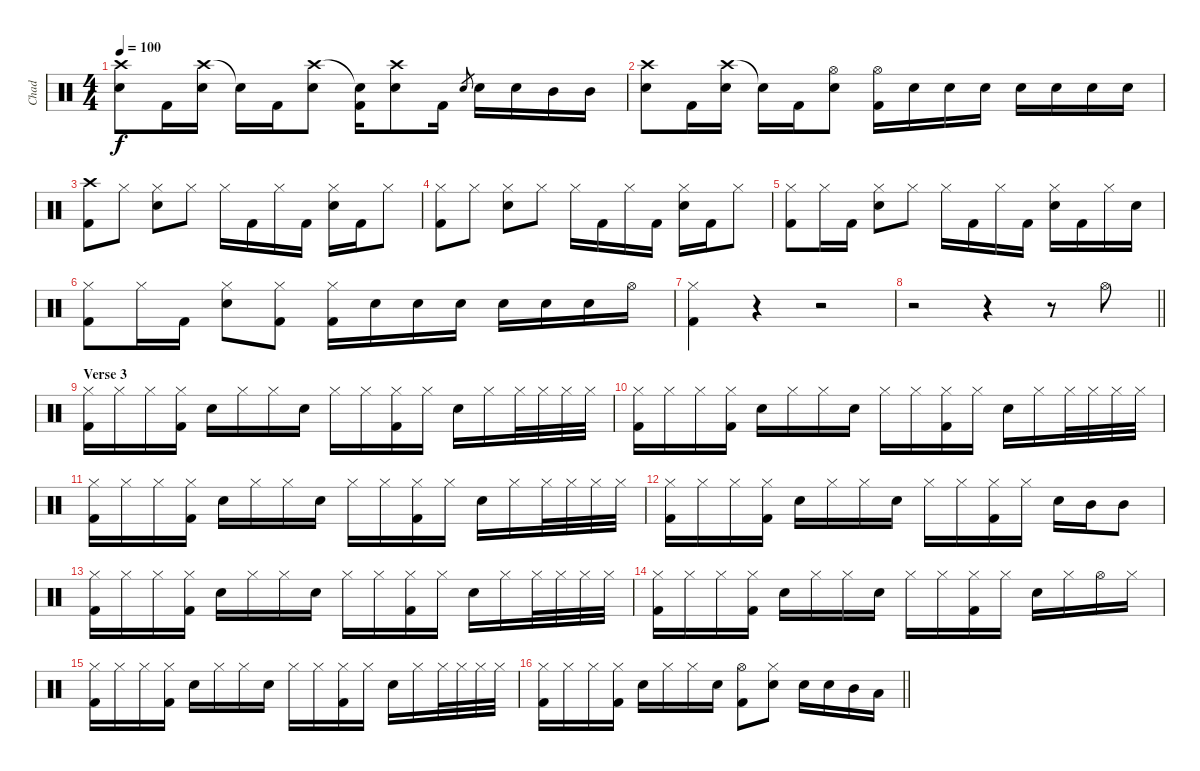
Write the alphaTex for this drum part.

\track ("Chad" "Chad") {instrument percussion}
\staff {score}
\articulation defaults
\ts (4 4)
\tempo 100
\clef neutral
\ks c
("Crash high (hit)" "Electric Snare (hit)").8{dy f} "Kick (hit) 2".16 ("Crash high (hit)" "Electric Snare (hit)").16 "Snare (hit)"{t}.16 "Kick (hit) 2".16 ("Crash high (hit)" "Electric Snare (hit)").8 ("Snare (hit)"{t} "Kick (hit) 2").16 ("Crash high (hit)" "Electric Snare (hit)").8 "Kick (hit) 2".16 "Electric Snare (hit)".8{gr} "Electric Snare (hit)".16 "Electric Snare (hit)".16 "Mid Tom (hit)".16 "Mid Tom (hit)".16 |
("Crash high (hit)" "Electric Snare (hit)").8 "Kick (hit) 2".16 ("Crash high (hit)" "Electric Snare (hit)").16 "Snare (hit)"{t}.16 "Kick (hit) 2".16 ("Hi-Hat (open)" "Electric Snare (hit)").8 ("Hi-Hat (open)" "Kick (hit) 2").16 "Electric Snare (hit)".16 "Electric Snare (hit)".16 "Electric Snare (hit)".16 "Electric Snare (hit)".16 "Electric Snare (hit)".16 "Electric Snare (hit)".16 "Electric Snare (hit)".16 |
("Crash high (hit)" "Kick (hit) 2").8 "Hi-Hat (closed)".8 ("Hi-Hat (closed)" "Electric Snare (hit)").8 "Hi-Hat (closed)".8 "Hi-Hat (closed)".16 "Kick (hit) 2".16 "Hi-Hat (closed)".16 "Kick (hit) 2".16 ("Hi-Hat (closed)" "Electric Snare (hit)").16 "Kick (hit) 2".16 "Hi-Hat (closed)".8 |
("Hi-Hat (closed)" "Kick (hit) 2").8 "Hi-Hat (closed)".8 ("Hi-Hat (closed)" "Electric Snare (hit)").8 "Hi-Hat (closed)".8 "Hi-Hat (closed)".16 "Kick (hit) 2".16 "Hi-Hat (closed)".16 "Kick (hit) 2".16 ("Hi-Hat (closed)" "Electric Snare (hit)").16 "Kick (hit) 2".16 "Hi-Hat (closed)".8 |
("Hi-Hat (closed)" "Kick (hit) 2").8 "Hi-Hat (closed)".16 "Kick (hit) 2".16 ("Hi-Hat (closed)" "Electric Snare (hit)").8 "Hi-Hat (closed)".8 "Hi-Hat (closed)".16 "Kick (hit) 2".16 "Hi-Hat (closed)".16 "Kick (hit) 2".16 ("Hi-Hat (closed)" "Electric Snare (hit)").16 "Kick (hit) 2".16 "Hi-Hat (closed)".16 "Electric Snare (hit)".16 |
("Hi-Hat (closed)" "Kick (hit) 2").8 "Hi-Hat (closed)".16 "Kick (hit) 2".16 ("Hi-Hat (closed)" "Electric Snare (hit)").8 ("Hi-Hat (closed)" "Kick (hit) 2").8 ("Hi-Hat (closed)" "Kick (hit) 2").16 "Electric Snare (hit)".16 "Electric Snare (hit)".16 "Electric Snare (hit)".16 "Electric Snare (hit)".16 "Electric Snare (hit)".16 "Electric Snare (hit)".16 "Hi-Hat (open)".16 |
("Hi-Hat (closed)" "Kick (hit) 2").4 r.4 r.2 |
\barLineRight lightlight
r.2 r.4 r.8 "Hi-Hat (open)".8 |
\section ("" "Verse 3")
("Hi-Hat (closed)" "Kick (hit) 2").16 "Hi-Hat (closed)".16 "Hi-Hat (closed)".16 ("Hi-Hat (closed)" "Kick (hit) 2").16 "Electric Snare (hit)".16 "Hi-Hat (closed)".16 "Hi-Hat (closed)".16 "Electric Snare (hit)".16 "Hi-Hat (closed)".16 "Hi-Hat (closed)".16 ("Hi-Hat (closed)" "Kick (hit) 2").16 "Hi-Hat (closed)".16 "Electric Snare (hit)".16 "Hi-Hat (closed)".16 "Hi-Hat (closed)".32 "Hi-Hat (closed)".32 "Hi-Hat (closed)".32 "Hi-Hat (closed)".32 |
("Hi-Hat (closed)" "Kick (hit) 2").16 "Hi-Hat (closed)".16 "Hi-Hat (closed)".16 ("Hi-Hat (closed)" "Kick (hit) 2").16 "Electric Snare (hit)".16 "Hi-Hat (closed)".16 "Hi-Hat (closed)".16 "Electric Snare (hit)".16 "Hi-Hat (closed)".16 "Hi-Hat (closed)".16 ("Hi-Hat (closed)" "Kick (hit) 2").16 "Hi-Hat (closed)".16 "Electric Snare (hit)".16 "Hi-Hat (closed)".16 "Hi-Hat (closed)".32 "Hi-Hat (closed)".32 "Hi-Hat (closed)".32 "Hi-Hat (closed)".32 |
("Hi-Hat (closed)" "Kick (hit) 2").16 "Hi-Hat (closed)".16 "Hi-Hat (closed)".16 ("Hi-Hat (closed)" "Kick (hit) 2").16 "Electric Snare (hit)".16 "Hi-Hat (closed)".16 "Hi-Hat (closed)".16 "Electric Snare (hit)".16 "Hi-Hat (closed)".16 "Hi-Hat (closed)".16 ("Hi-Hat (closed)" "Kick (hit) 2").16 "Hi-Hat (closed)".16 "Electric Snare (hit)".16 "Hi-Hat (closed)".16 "Hi-Hat (closed)".32 "Hi-Hat (closed)".32 "Hi-Hat (closed)".32 "Hi-Hat (closed)".32 |
("Hi-Hat (closed)" "Kick (hit) 2").16 "Hi-Hat (closed)".16 "Hi-Hat (closed)".16 ("Hi-Hat (closed)" "Kick (hit) 2").16 "Electric Snare (hit)".16 "Hi-Hat (closed)".16 "Hi-Hat (closed)".16 "Electric Snare (hit)".16 "Hi-Hat (closed)".16 "Hi-Hat (closed)".16 ("Hi-Hat (closed)" "Kick (hit) 2").16 "Hi-Hat (closed)".16 "Electric Snare (hit)".16 "Mid Tom (hit)".16 "Mid Tom (hit)".8 |
("Hi-Hat (closed)" "Kick (hit) 2").16 "Hi-Hat (closed)".16 "Hi-Hat (closed)".16 ("Hi-Hat (closed)" "Kick (hit) 2").16 "Electric Snare (hit)".16 "Hi-Hat (closed)".16 "Hi-Hat (closed)".16 "Electric Snare (hit)".16 "Hi-Hat (closed)".16 "Hi-Hat (closed)".16 ("Hi-Hat (closed)" "Kick (hit) 2").16 "Hi-Hat (closed)".16 "Electric Snare (hit)".16 "Hi-Hat (closed)".16 "Hi-Hat (closed)".32 "Hi-Hat (closed)".32 "Hi-Hat (closed)".32 "Hi-Hat (closed)".32 |
("Hi-Hat (closed)" "Kick (hit) 2").16 "Hi-Hat (closed)".16 "Hi-Hat (closed)".16 ("Hi-Hat (closed)" "Kick (hit) 2").16 "Electric Snare (hit)".16 "Hi-Hat (closed)".16 "Hi-Hat (closed)".16 "Electric Snare (hit)".16 "Hi-Hat (closed)".16 "Hi-Hat (closed)".16 ("Hi-Hat (closed)" "Kick (hit) 2").16 "Hi-Hat (closed)".16 "Electric Snare (hit)".16 "Hi-Hat (closed)".16 "Hi-Hat (open)".16 "Hi-Hat (closed)".16 |
("Hi-Hat (closed)" "Kick (hit) 2").16 "Hi-Hat (closed)".16 "Hi-Hat (closed)".16 ("Hi-Hat (closed)" "Kick (hit) 2").16 "Electric Snare (hit)".16 "Hi-Hat (closed)".16 "Hi-Hat (closed)".16 "Electric Snare (hit)".16 "Hi-Hat (closed)".16 "Hi-Hat (closed)".16 ("Hi-Hat (closed)" "Kick (hit) 2").16 "Hi-Hat (closed)".16 "Electric Snare (hit)".16 "Hi-Hat (closed)".16 "Hi-Hat (closed)".32 "Hi-Hat (closed)".32 "Hi-Hat (closed)".32 "Hi-Hat (closed)".32 |
\barLineRight lightlight
("Hi-Hat (closed)" "Kick (hit) 2").16 "Hi-Hat (closed)".16 "Hi-Hat (closed)".16 ("Hi-Hat (closed)" "Kick (hit) 2").16 "Electric Snare (hit)".16 "Hi-Hat (closed)".16 "Hi-Hat (closed)".16 "Electric Snare (hit)".16 ("Hi-Hat (open)" "Kick (hit) 2").8 ("Hi-Hat (closed)" "Electric Snare (hit)").8 "Electric Snare (hit)".16 "Electric Snare (hit)".16 "Mid Tom (hit)".16 "Low Tom (hit)".16
